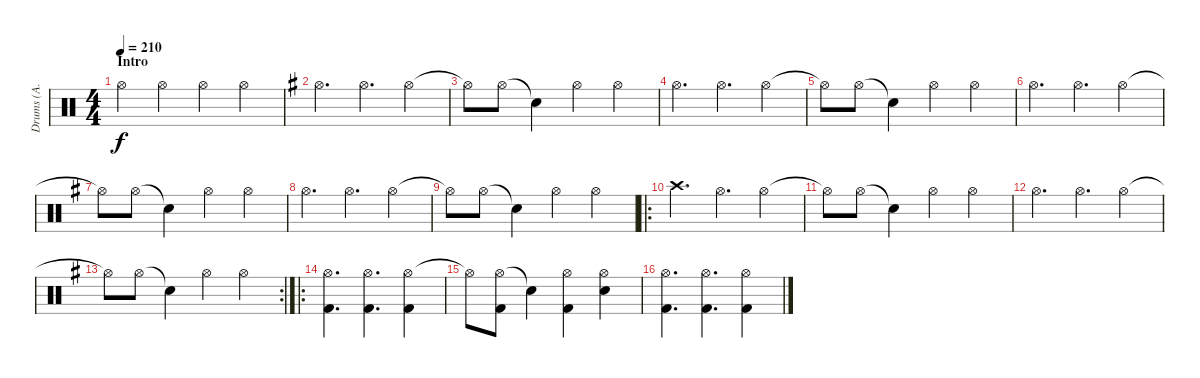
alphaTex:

\track ("Drums (А. Манякин)" "Drums (А. ") {instrument percussion}
\staff {score}
\articulation defaults
\ts (4 4)
\section ("" "Intro")
\tempo 210
\clef neutral
\ks c "Hi-Hat (open)".4{dy f} "Hi-Hat (open)".4 "Hi-Hat (open)".4 "Hi-Hat (open)".4
|
\ks g "Hi-Hat (open)".4{d} "Hi-Hat (open)".4{d} "Hi-Hat (open)".4
|
"Hi-Hat (open)"{t}.8 "Hi-Hat (open)".8 "Snare (hit)"{t}.4 "Hi-Hat (open)".4 "Hi-Hat (open)".4 |
"Hi-Hat (open)".4{d} "Hi-Hat (open)".4{d} "Hi-Hat (open)".4 |
"Hi-Hat (open)"{t}.8 "Hi-Hat (open)".8 "Snare (hit)"{t}.4 "Hi-Hat (open)".4 "Hi-Hat (open)".4 |
"Hi-Hat (open)".4{d} "Hi-Hat (open)".4{d} "Hi-Hat (open)".4 |
"Hi-Hat (open)"{t}.8 "Hi-Hat (open)".8 "Snare (hit)"{t}.4 "Hi-Hat (open)".4 "Hi-Hat (open)".4 |
"Hi-Hat (open)".4{d} "Hi-Hat (open)".4{d} "Hi-Hat (open)".4 |
"Hi-Hat (open)"{t}.8 "Hi-Hat (open)".8 "Snare (hit)"{t}.4 "Hi-Hat (open)".4 "Hi-Hat (open)".4 |
\ro "Crash high (hit)".4{d} "Hi-Hat (open)".4{d} "Hi-Hat (open)".4
|
"Hi-Hat (open)"{t}.8 "Hi-Hat (open)".8 "Snare (hit)"{t}.4 "Hi-Hat (open)".4 "Hi-Hat (open)".4 |
"Hi-Hat (open)".4{d} "Hi-Hat (open)".4{d} "Hi-Hat (open)".4 |
\rc 2 "Hi-Hat (open)"{t}.8 "Hi-Hat (open)".8 "Snare (hit)"{t}.4 "Hi-Hat (open)".4 "Hi-Hat (open)".4
|
\ro
("Hi-Hat (open)" "Kick (hit) 2").4{d} ("Hi-Hat (open)" "Kick (hit) 2").4{d} ("Hi-Hat (open)" "Kick (hit) 2").4 |
"Hi-Hat (open)"{t}.8 ("Hi-Hat (open)" "Kick (hit) 2").8 "Snare (hit)"{t}.4 ("Hi-Hat (open)" "Kick (hit) 2").4 ("Hi-Hat (open)" "Snare (hit) 2").4 |
("Hi-Hat (open)" "Kick (hit) 2").4{d} ("Hi-Hat (open)" "Kick (hit) 2").4{d} ("Hi-Hat (open)" "Kick (hit) 2").4
